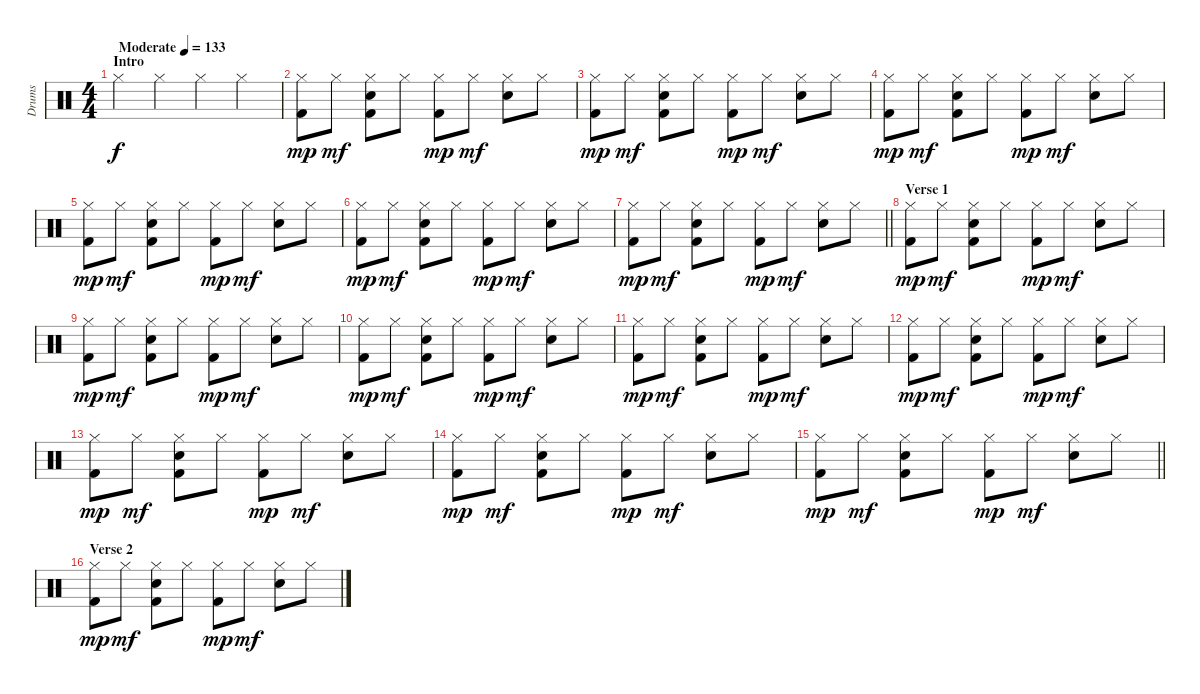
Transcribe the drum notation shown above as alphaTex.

\track ("Drums" "Drums") {instrument percussion}
\staff {score}
\articulation defaults
\ts (4 4)
\section ("" "Intro")
\tempo (133 "Moderate")
\clef neutral
\ks c "Hi-Hat (closed)".4{dy f} "Hi-Hat (closed)".4 "Hi-Hat (closed)".4 "Hi-Hat (closed)".4
|
("Kick (hit) 2" "Hi-Hat (closed)").8{dy mp} "Hi-Hat (closed)".8{dy mf} ("Kick (hit) 2" "Snare (hit) 2" "Hi-Hat (closed)").8 "Hi-Hat (closed)".8 ("Kick (hit) 2" "Hi-Hat (closed)").8{dy mp} "Hi-Hat (closed)".8{dy mf} ("Snare (hit) 2" "Hi-Hat (closed)").8 "Hi-Hat (closed)".8 |
("Kick (hit) 2" "Hi-Hat (closed)").8{dy mp} "Hi-Hat (closed)".8{dy mf} ("Kick (hit) 2" "Snare (hit) 2" "Hi-Hat (closed)").8 "Hi-Hat (closed)".8 ("Kick (hit) 2" "Hi-Hat (closed)").8{dy mp} "Hi-Hat (closed)".8{dy mf} ("Snare (hit) 2" "Hi-Hat (closed)").8 "Hi-Hat (closed)".8 |
("Kick (hit) 2" "Hi-Hat (closed)").8{dy mp} "Hi-Hat (closed)".8{dy mf} ("Kick (hit) 2" "Snare (hit) 2" "Hi-Hat (closed)").8 "Hi-Hat (closed)".8 ("Kick (hit) 2" "Hi-Hat (closed)").8{dy mp} "Hi-Hat (closed)".8{dy mf} ("Snare (hit) 2" "Hi-Hat (closed)").8 "Hi-Hat (closed)".8 |
("Kick (hit) 2" "Hi-Hat (closed)").8{dy mp} "Hi-Hat (closed)".8{dy mf} ("Kick (hit) 2" "Snare (hit) 2" "Hi-Hat (closed)").8 "Hi-Hat (closed)".8 ("Kick (hit) 2" "Hi-Hat (closed)").8{dy mp} "Hi-Hat (closed)".8{dy mf} ("Snare (hit) 2" "Hi-Hat (closed)").8 "Hi-Hat (closed)".8 |
("Kick (hit) 2" "Hi-Hat (closed)").8{dy mp} "Hi-Hat (closed)".8{dy mf} ("Kick (hit) 2" "Snare (hit) 2" "Hi-Hat (closed)").8 "Hi-Hat (closed)".8 ("Kick (hit) 2" "Hi-Hat (closed)").8{dy mp} "Hi-Hat (closed)".8{dy mf} ("Snare (hit) 2" "Hi-Hat (closed)").8 "Hi-Hat (closed)".8 |
\barLineRight lightlight
("Kick (hit) 2" "Hi-Hat (closed)").8{dy mp} "Hi-Hat (closed)".8{dy mf} ("Kick (hit) 2" "Snare (hit) 2" "Hi-Hat (closed)").8 "Hi-Hat (closed)".8 ("Kick (hit) 2" "Hi-Hat (closed)").8{dy mp} "Hi-Hat (closed)".8{dy mf} ("Snare (hit) 2" "Hi-Hat (closed)").8 "Hi-Hat (closed)".8 |
\section ("" "Verse 1")
("Kick (hit) 2" "Hi-Hat (closed)").8{dy mp} "Hi-Hat (closed)".8{dy mf} ("Kick (hit) 2" "Snare (hit) 2" "Hi-Hat (closed)").8 "Hi-Hat (closed)".8 ("Kick (hit) 2" "Hi-Hat (closed)").8{dy mp} "Hi-Hat (closed)".8{dy mf} ("Snare (hit) 2" "Hi-Hat (closed)").8 "Hi-Hat (closed)".8 |
("Kick (hit) 2" "Hi-Hat (closed)").8{dy mp} "Hi-Hat (closed)".8{dy mf} ("Kick (hit) 2" "Snare (hit) 2" "Hi-Hat (closed)").8 "Hi-Hat (closed)".8 ("Kick (hit) 2" "Hi-Hat (closed)").8{dy mp} "Hi-Hat (closed)".8{dy mf} ("Snare (hit) 2" "Hi-Hat (closed)").8 "Hi-Hat (closed)".8 |
("Kick (hit) 2" "Hi-Hat (closed)").8{dy mp} "Hi-Hat (closed)".8{dy mf} ("Kick (hit) 2" "Snare (hit) 2" "Hi-Hat (closed)").8 "Hi-Hat (closed)".8 ("Kick (hit) 2" "Hi-Hat (closed)").8{dy mp} "Hi-Hat (closed)".8{dy mf} ("Snare (hit) 2" "Hi-Hat (closed)").8 "Hi-Hat (closed)".8 |
("Kick (hit) 2" "Hi-Hat (closed)").8{dy mp} "Hi-Hat (closed)".8{dy mf} ("Kick (hit) 2" "Snare (hit) 2" "Hi-Hat (closed)").8 "Hi-Hat (closed)".8 ("Kick (hit) 2" "Hi-Hat (closed)").8{dy mp} "Hi-Hat (closed)".8{dy mf} ("Snare (hit) 2" "Hi-Hat (closed)").8 "Hi-Hat (closed)".8 |
("Kick (hit) 2" "Hi-Hat (closed)").8{dy mp} "Hi-Hat (closed)".8{dy mf} ("Kick (hit) 2" "Snare (hit) 2" "Hi-Hat (closed)").8 "Hi-Hat (closed)".8 ("Kick (hit) 2" "Hi-Hat (closed)").8{dy mp} "Hi-Hat (closed)".8{dy mf} ("Snare (hit) 2" "Hi-Hat (closed)").8 "Hi-Hat (closed)".8 |
("Kick (hit) 2" "Hi-Hat (closed)").8{dy mp} "Hi-Hat (closed)".8{dy mf} ("Kick (hit) 2" "Snare (hit) 2" "Hi-Hat (closed)").8 "Hi-Hat (closed)".8 ("Kick (hit) 2" "Hi-Hat (closed)").8{dy mp} "Hi-Hat (closed)".8{dy mf} ("Snare (hit) 2" "Hi-Hat (closed)").8 "Hi-Hat (closed)".8 |
("Kick (hit) 2" "Hi-Hat (closed)").8{dy mp} "Hi-Hat (closed)".8{dy mf} ("Kick (hit) 2" "Snare (hit) 2" "Hi-Hat (closed)").8 "Hi-Hat (closed)".8 ("Kick (hit) 2" "Hi-Hat (closed)").8{dy mp} "Hi-Hat (closed)".8{dy mf} ("Snare (hit) 2" "Hi-Hat (closed)").8 "Hi-Hat (closed)".8 |
\barLineRight lightlight
("Kick (hit) 2" "Hi-Hat (closed)").8{dy mp} "Hi-Hat (closed)".8{dy mf} ("Kick (hit) 2" "Snare (hit) 2" "Hi-Hat (closed)").8 "Hi-Hat (closed)".8 ("Kick (hit) 2" "Hi-Hat (closed)").8{dy mp} "Hi-Hat (closed)".8{dy mf} ("Snare (hit) 2" "Hi-Hat (closed)").8 "Hi-Hat (closed)".8 |
\section ("" "Verse 2")
("Kick (hit) 2" "Hi-Hat (closed)").8{dy mp} "Hi-Hat (closed)".8{dy mf} ("Kick (hit) 2" "Snare (hit) 2" "Hi-Hat (closed)").8 "Hi-Hat (closed)".8 ("Kick (hit) 2" "Hi-Hat (closed)").8{dy mp} "Hi-Hat (closed)".8{dy mf} ("Snare (hit) 2" "Hi-Hat (closed)").8 "Hi-Hat (closed)".8
